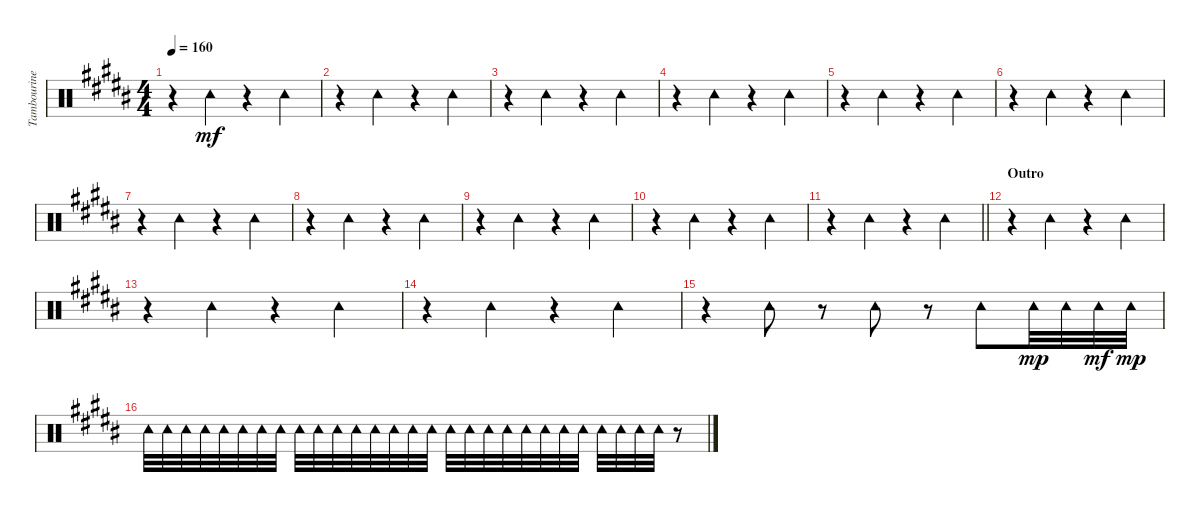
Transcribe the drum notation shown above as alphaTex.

\track ("Tambourine" "Tambourine") {instrument percussion}
\staff {score}
\articulation defaults
\ts (4 4)
\tempo 160
\clef neutral
\ks b
r.4{dy mf} "Tambourine (hit)".4 r.4 "Tambourine (hit)".4 |
r.4 "Tambourine (hit)".4 r.4 "Tambourine (hit)".4 |
r.4 "Tambourine (hit)".4 r.4 "Tambourine (hit)".4 |
r.4 "Tambourine (hit)".4 r.4 "Tambourine (hit)".4 |
r.4 "Tambourine (hit)".4 r.4 "Tambourine (hit)".4 |
r.4 "Tambourine (hit)".4 r.4 "Tambourine (hit)".4 |
r.4 "Tambourine (hit)".4 r.4 "Tambourine (hit)".4 |
r.4 "Tambourine (hit)".4 r.4 "Tambourine (hit)".4 |
r.4 "Tambourine (hit)".4 r.4 "Tambourine (hit)".4 |
r.4 "Tambourine (hit)".4 r.4 "Tambourine (hit)".4 |
\barLineRight lightlight
r.4 "Tambourine (hit)".4 r.4 "Tambourine (hit)".4 |
\section ("" "Outro")
r.4 "Tambourine (hit)".4 r.4 "Tambourine (hit)".4 |
r.4 "Tambourine (hit)".4 r.4 "Tambourine (hit)".4 |
r.4 "Tambourine (hit)".4 r.4 "Tambourine (hit)".4 |
r.4 "Tambourine (hit)".8 r.8 "Tambourine (hit)".8 r.8 "Tambourine (hit)".8 "Tambourine (hit)".32{dy mp} "Tambourine (hit)".32 "Tambourine (hit)".32{dy mf} "Tambourine (hit)".32{dy mp} |
"Tambourine (hit)".32 "Tambourine (hit)".32 "Tambourine (hit)".32 "Tambourine (hit)".32 "Tambourine (hit)".32 "Tambourine (hit)".32 "Tambourine (hit)".32 "Tambourine (hit)".32 "Tambourine (hit)".32 "Tambourine (hit)".32 "Tambourine (hit)".32 "Tambourine (hit)".32 "Tambourine (hit)".32 "Tambourine (hit)".32 "Tambourine (hit)".32 "Tambourine (hit)".32 "Tambourine (hit)".32 "Tambourine (hit)".32 "Tambourine (hit)".32 "Tambourine (hit)".32 "Tambourine (hit)".32 "Tambourine (hit)".32 "Tambourine (hit)".32 "Tambourine (hit)".32 "Tambourine (hit)".32 "Tambourine (hit)".32 "Tambourine (hit)".32 "Tambourine (hit)".32 r.8
